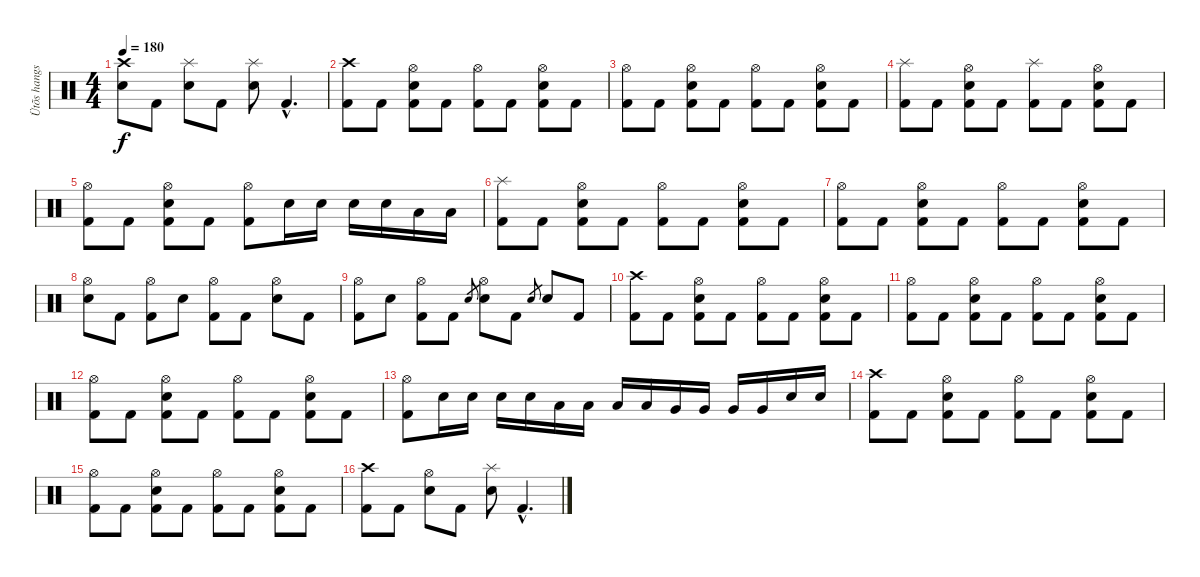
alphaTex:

\track ("Ütõs hangszer" "Ütõs hangs") {instrument percussion}
\staff {score}
\articulation defaults
\ts (4 4)
\tempo 180
\clef neutral
\ks c
("Crash high (hit)" "Electric Snare (hit)").8{dy f} "Kick (hit) 2".8 ("Splash (hit)" "Electric Snare (hit)").8 "Kick (hit) 2".8 ("Splash (hit)" "Electric Snare (hit)").8 "Kick (hit) 2"{hac}.4{d} |
("Crash high (hit)" "Kick (hit) 2").8 "Kick (hit) 2".8 ("Hi-Hat (open)" "Electric Snare (hit)" "Kick (hit) 2").8 "Kick (hit) 2".8 ("Hi-Hat (open)" "Kick (hit) 2").8 "Kick (hit) 2".8 ("Hi-Hat (open)" "Electric Snare (hit)" "Kick (hit) 2").8 "Kick (hit) 2".8 |
("Hi-Hat (open)" "Kick (hit) 2").8 "Kick (hit) 2".8 ("Hi-Hat (open)" "Electric Snare (hit)" "Kick (hit) 2").8 "Kick (hit) 2".8 ("Hi-Hat (open)" "Kick (hit) 2").8 "Kick (hit) 2".8 ("Hi-Hat (open)" "Electric Snare (hit)" "Kick (hit) 2").8 "Kick (hit) 2".8 |
("Splash (hit)" "Kick (hit) 2").8 "Kick (hit) 2".8 ("Hi-Hat (open)" "Electric Snare (hit)" "Kick (hit) 2").8 "Kick (hit) 2".8 ("Splash (hit)" "Kick (hit) 2").8 "Kick (hit) 2".8 ("Hi-Hat (open)" "Electric Snare (hit)" "Kick (hit) 2").8 "Kick (hit) 2".8 |
("Hi-Hat (open)" "Kick (hit) 2").8 "Kick (hit) 2".8 ("Hi-Hat (open)" "Electric Snare (hit)" "Kick (hit) 2").8 "Kick (hit) 2".8 ("Hi-Hat (open)" "Kick (hit) 2").8 "Electric Snare (hit)".16 "Electric Snare (hit)".16 "Electric Snare (hit)".16 "Electric Snare (hit)".16 "Low Tom (hit)".16 "Low Tom (hit)".16 |
("Splash (hit)" "Kick (hit) 2").8 "Kick (hit) 2".8 ("Hi-Hat (open)" "Electric Snare (hit)" "Kick (hit) 2").8 "Kick (hit) 2".8 ("Hi-Hat (open)" "Kick (hit) 2").8 "Kick (hit) 2".8 ("Hi-Hat (open)" "Electric Snare (hit)" "Kick (hit) 2").8 "Kick (hit) 2".8 |
("Hi-Hat (open)" "Kick (hit) 2").8 "Kick (hit) 2".8 ("Hi-Hat (open)" "Electric Snare (hit)" "Kick (hit) 2").8 "Kick (hit) 2".8 ("Hi-Hat (open)" "Kick (hit) 2").8 "Kick (hit) 2".8 ("Hi-Hat (open)" "Electric Snare (hit)" "Kick (hit) 2").8 "Kick (hit) 2".8 |
("Hi-Hat (open)" "Electric Snare (hit)").8 "Kick (hit) 2".8 ("Hi-Hat (open)" "Kick (hit) 2").8 "Electric Snare (hit)".8 ("Hi-Hat (open)" "Kick (hit) 2").8 "Kick (hit) 2".8 ("Hi-Hat (open)" "Electric Snare (hit)").8 "Kick (hit) 2".8 |
("Hi-Hat (open)" "Kick (hit) 2").8 "Electric Snare (hit)".8 ("Hi-Hat (open)" "Kick (hit) 2").8 "Kick (hit) 2".8 "Electric Snare (hit)".8{gr} ("Hi-Hat (open)" "Electric Snare (hit)").8 "Kick (hit) 2".8 "Electric Snare (hit)".8{gr} "Electric Snare (hit)".8 "Kick (hit) 2".8 |
("Crash high (hit)" "Kick (hit) 2").8 "Kick (hit) 2".8 ("Hi-Hat (open)" "Electric Snare (hit)" "Kick (hit) 2").8 "Kick (hit) 2".8 ("Hi-Hat (open)" "Kick (hit) 2").8 "Kick (hit) 2".8 ("Hi-Hat (open)" "Electric Snare (hit)" "Kick (hit) 2").8 "Kick (hit) 2".8 |
("Hi-Hat (open)" "Kick (hit) 2").8 "Kick (hit) 2".8 ("Hi-Hat (open)" "Electric Snare (hit)" "Kick (hit) 2").8 "Kick (hit) 2".8 ("Hi-Hat (open)" "Kick (hit) 2").8 "Kick (hit) 2".8 ("Hi-Hat (open)" "Electric Snare (hit)" "Kick (hit) 2").8 "Kick (hit) 2".8 |
("Hi-Hat (open)" "Kick (hit) 2").8 "Kick (hit) 2".8 ("Hi-Hat (open)" "Electric Snare (hit)" "Kick (hit) 2").8 "Kick (hit) 2".8 ("Hi-Hat (open)" "Kick (hit) 2").8 "Kick (hit) 2".8 ("Hi-Hat (open)" "Electric Snare (hit)" "Kick (hit) 2").8 "Kick (hit) 2".8 |
("Hi-Hat (open)" "Kick (hit) 2").8 "Electric Snare (hit)".16 "Electric Snare (hit)".16 "Electric Snare (hit)".16 "Electric Snare (hit)".16 "Low Tom (hit)".16 "Low Tom (hit)".16 "Low Tom (hit)".16 "Low Tom (hit)".16 "Very Low Tom (hit)".16 "Very Low Tom (hit)".16 "Very Low Tom (hit)".16 "Very Low Tom (hit)".16 "Electric Snare (hit)".16 "Electric Snare (hit)".16 |
("Crash high (hit)" "Kick (hit) 2").8 "Kick (hit) 2".8 ("Hi-Hat (open)" "Electric Snare (hit)" "Kick (hit) 2").8 "Kick (hit) 2".8 ("Hi-Hat (open)" "Kick (hit) 2").8 "Kick (hit) 2".8 ("Hi-Hat (open)" "Electric Snare (hit)" "Kick (hit) 2").8 "Kick (hit) 2".8 |
("Hi-Hat (open)" "Kick (hit) 2").8 "Kick (hit) 2".8 ("Hi-Hat (open)" "Electric Snare (hit)" "Kick (hit) 2").8 "Kick (hit) 2".8 ("Hi-Hat (open)" "Kick (hit) 2").8 "Kick (hit) 2".8 ("Hi-Hat (open)" "Electric Snare (hit)" "Kick (hit) 2").8 "Kick (hit) 2".8 |
("Crash high (hit)" "Kick (hit) 2").8 "Kick (hit) 2".8 ("Hi-Hat (open)" "Electric Snare (hit)").8 "Kick (hit) 2".8 ("Splash (hit)" "Electric Snare (hit)").8 "Kick (hit) 2"{hac}.4{d}
